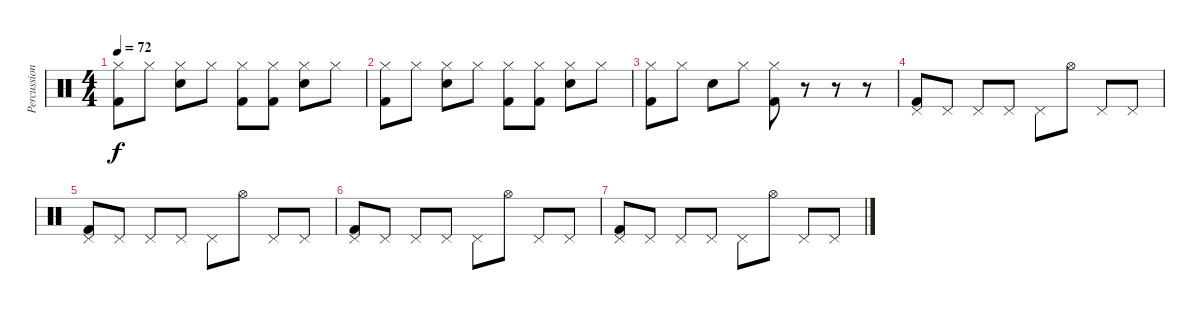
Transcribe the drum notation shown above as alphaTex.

\track ("Percussion" "Percussion") {instrument percussion}
\staff {score}
\articulation defaults
\ts (4 4)
\tempo 72
\clef neutral
\ks c
("Hi-Hat (closed)" "Kick (hit) 2").8{dy f} "Hi-Hat (closed)".8 ("Hi-Hat (closed)" "Snare (hit) 2").8 "Hi-Hat (closed)".8 ("Hi-Hat (closed)" "Kick (hit) 2").8 ("Hi-Hat (closed)" "Kick (hit) 2").8 ("Hi-Hat (closed)" "Snare (hit) 2").8 "Hi-Hat (closed)".8 |
("Hi-Hat (closed)" "Kick (hit) 2").8 "Hi-Hat (closed)".8 ("Hi-Hat (closed)" "Snare (hit) 2").8 "Hi-Hat (closed)".8 ("Hi-Hat (closed)" "Kick (hit) 2").8 ("Hi-Hat (closed)" "Kick (hit) 2").8 ("Hi-Hat (closed)" "Snare (hit) 2").8 "Hi-Hat (closed)".8 |
("Hi-Hat (closed)" "Kick (hit) 2").8 "Hi-Hat (closed)".8 "Snare (hit) 2".8 "Hi-Hat (closed)".8 ("Hi-Hat (closed)" "Kick (hit) 2").8 r.8 r.8 r.8 |
("Pedal Hi-Hat (hit)" "Kick (hit) 2").8 "Pedal Hi-Hat (hit)".8 "Pedal Hi-Hat (hit)".8 "Pedal Hi-Hat (hit)".8 "Pedal Hi-Hat (hit)".8 "Hi-Hat (open)".8 "Pedal Hi-Hat (hit)".8 "Pedal Hi-Hat (hit)".8 |
("Pedal Hi-Hat (hit)" "Kick (hit) 2").8 "Pedal Hi-Hat (hit)".8 "Pedal Hi-Hat (hit)".8 "Pedal Hi-Hat (hit)".8 "Pedal Hi-Hat (hit)".8 "Hi-Hat (open)".8 "Pedal Hi-Hat (hit)".8 "Pedal Hi-Hat (hit)".8 |
("Pedal Hi-Hat (hit)" "Kick (hit) 2").8 "Pedal Hi-Hat (hit)".8 "Pedal Hi-Hat (hit)".8 "Pedal Hi-Hat (hit)".8 "Pedal Hi-Hat (hit)".8 "Hi-Hat (open)".8 "Pedal Hi-Hat (hit)".8 "Pedal Hi-Hat (hit)".8 |
("Pedal Hi-Hat (hit)" "Kick (hit) 2").8 "Pedal Hi-Hat (hit)".8 "Pedal Hi-Hat (hit)".8 "Pedal Hi-Hat (hit)".8 "Pedal Hi-Hat (hit)".8 "Hi-Hat (open)".8 "Pedal Hi-Hat (hit)".8 "Pedal Hi-Hat (hit)".8
